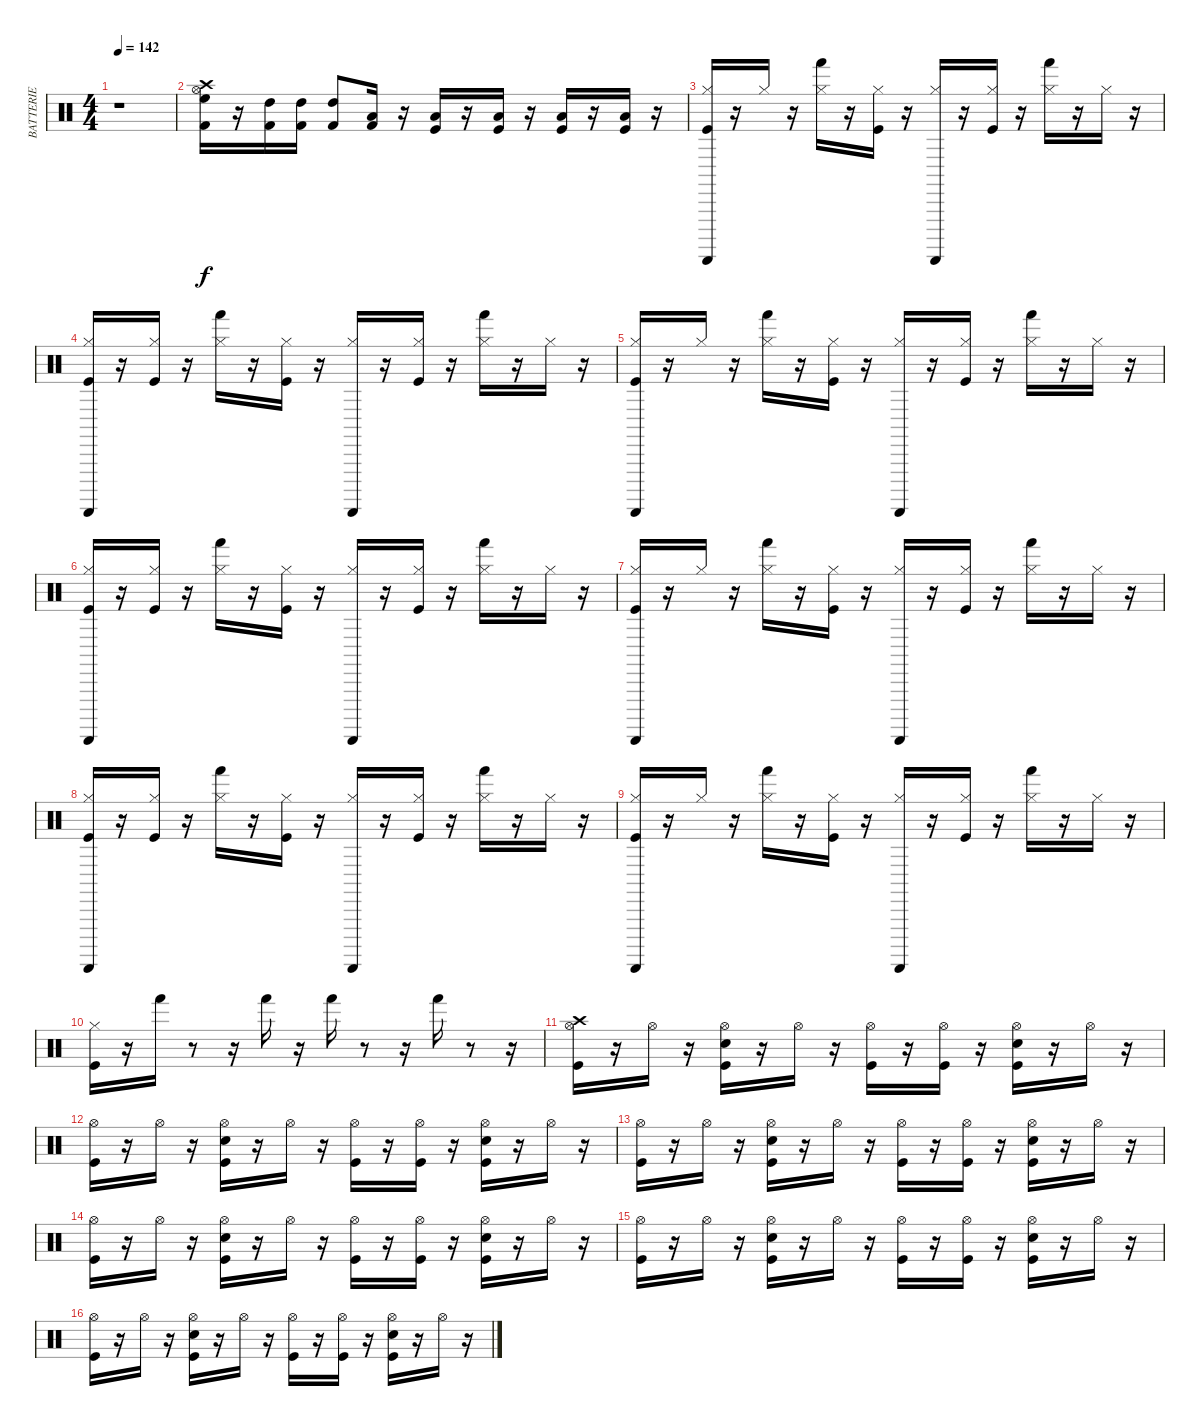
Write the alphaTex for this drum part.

\track ("BATTERIE" "BATTERIE") {instrument percussion}
\staff {score}
\articulation defaults
\ts (4 4)
\tempo 142
\clef neutral
\ks c
r.1{dy f} |
("Kick (hit) 2" "High Floor Tom (hit)" "Hi-Hat (open)" "Crash high (hit)").16 r.16 ("Kick (hit) 2" "High Tom (hit)").16 ("Kick (hit) 2" "High Tom (hit)").16 ("Kick (hit) 2" "High Tom (hit)").8 ("Kick (hit) 2" "Low Tom (hit)").16 r.16 ("Kick (hit)" "Low Tom (hit)").16 r.16 ("Kick (hit)" "Low Floor Tom (hit)").16 r.16 ("Kick (hit)" "Low Floor Tom (hit)").16 r.16 ("Kick (hit)" "Low Floor Tom (hit)").16 r.16 |
("Kick (hit)" "Hi-Hat (closed)" "Guiro (scrap-return)").16 r.16 "Hi-Hat (closed)".16 r.16 ("Hi-Hat (closed)" "Hand (hit)").16 r.16 ("Kick (hit)" "Hi-Hat (closed)").16 r.16 ("Hi-Hat (closed)" "Guiro (scrap-return)").16 r.16 ("Kick (hit)" "Hi-Hat (closed)").16 r.16 ("Hi-Hat (closed)" "Hand (hit)").16 r.16 "Hi-Hat (closed)".16 r.16 |
("Kick (hit)" "Hi-Hat (closed)" "Guiro (scrap-return)").16 r.16 ("Kick (hit)" "Hi-Hat (closed)").16 r.16 ("Hi-Hat (closed)" "Hand (hit)").16 r.16 ("Kick (hit)" "Hi-Hat (closed)").16 r.16 ("Hi-Hat (closed)" "Guiro (scrap-return)").16 r.16 ("Kick (hit)" "Hi-Hat (closed)").16 r.16 ("Hi-Hat (closed)" "Hand (hit)").16 r.16 "Hi-Hat (closed)".16 r.16 |
("Guiro (scrap-return)" "Hi-Hat (closed)" "Kick (hit)").16 r.16 "Hi-Hat (closed)".16 r.16 ("Hi-Hat (closed)" "Hand (hit)").16 r.16 ("Kick (hit)" "Hi-Hat (closed)").16 r.16 ("Hi-Hat (closed)" "Guiro (scrap-return)").16 r.16 ("Kick (hit)" "Hi-Hat (closed)").16 r.16 ("Hi-Hat (closed)" "Hand (hit)").16 r.16 "Hi-Hat (closed)".16 r.16 |
("Kick (hit)" "Hi-Hat (closed)" "Guiro (scrap-return)").16 r.16 ("Kick (hit)" "Hi-Hat (closed)").16 r.16 ("Hi-Hat (closed)" "Hand (hit)").16 r.16 ("Kick (hit)" "Hi-Hat (closed)").16 r.16 ("Hi-Hat (closed)" "Guiro (scrap-return)").16 r.16 ("Kick (hit)" "Hi-Hat (closed)").16 r.16 ("Hi-Hat (closed)" "Hand (hit)").16 r.16 "Hi-Hat (closed)".16 r.16 |
("Guiro (scrap-return)" "Hi-Hat (closed)" "Kick (hit)").16 r.16 "Hi-Hat (closed)".16 r.16 ("Hi-Hat (closed)" "Hand (hit)").16 r.16 ("Kick (hit)" "Hi-Hat (closed)").16 r.16 ("Hi-Hat (closed)" "Guiro (scrap-return)").16 r.16 ("Kick (hit)" "Hi-Hat (closed)").16 r.16 ("Hi-Hat (closed)" "Hand (hit)").16 r.16 "Hi-Hat (closed)".16 r.16 |
("Kick (hit)" "Hi-Hat (closed)" "Guiro (scrap-return)").16 r.16 ("Kick (hit)" "Hi-Hat (closed)").16 r.16 ("Hi-Hat (closed)" "Hand (hit)").16 r.16 ("Kick (hit)" "Hi-Hat (closed)").16 r.16 ("Hi-Hat (closed)" "Guiro (scrap-return)").16 r.16 ("Kick (hit)" "Hi-Hat (closed)").16 r.16 ("Hi-Hat (closed)" "Hand (hit)").16 r.16 "Hi-Hat (closed)".16 r.16 |
("Guiro (scrap-return)" "Hi-Hat (closed)" "Kick (hit)").16 r.16 "Hi-Hat (closed)".16 r.16 ("Hi-Hat (closed)" "Hand (hit)").16 r.16 ("Kick (hit)" "Hi-Hat (closed)").16 r.16 ("Hi-Hat (closed)" "Guiro (scrap-return)").16 r.16 ("Kick (hit)" "Hi-Hat (closed)").16 r.16 ("Hi-Hat (closed)" "Hand (hit)").16 r.16 "Hi-Hat (closed)".16 r.16 |
("Kick (hit)" "Hi-Hat (closed)").16 r.16 "Hand (hit)".16 r.8 r.16 "Hand (hit)".16 r.16 "Hand (hit)".16 r.8 r.16 "Hand (hit)".16 r.8 r.16 |
("Crash high (hit)" "Hi-Hat (open)" "Kick (hit)").16 r.16 "Hi-Hat (open)".16 r.16 ("Snare (hit) 2" "Kick (hit)" "Hi-Hat (open)").16 r.16 "Hi-Hat (open)".16 r.16 ("Kick (hit)" "Hi-Hat (open)").16 r.16 ("Kick (hit)" "Hi-Hat (open)").16 r.16 ("Kick (hit)" "Snare (hit) 2" "Hi-Hat (open)").16 r.16 "Hi-Hat (open)".16 r.16 |
("Kick (hit)" "Hi-Hat (open)").16 r.16 "Hi-Hat (open)".16 r.16 ("Snare (hit) 2" "Kick (hit)" "Hi-Hat (open)").16 r.16 "Hi-Hat (open)".16 r.16 ("Kick (hit)" "Hi-Hat (open)").16 r.16 ("Kick (hit)" "Hi-Hat (open)").16 r.16 ("Kick (hit)" "Snare (hit) 2" "Hi-Hat (open)").16 r.16 "Hi-Hat (open)".16 r.16 |
("Kick (hit)" "Hi-Hat (open)").16 r.16 "Hi-Hat (open)".16 r.16 ("Snare (hit) 2" "Kick (hit)" "Hi-Hat (open)").16 r.16 "Hi-Hat (open)".16 r.16 ("Kick (hit)" "Hi-Hat (open)").16 r.16 ("Kick (hit)" "Hi-Hat (open)").16 r.16 ("Kick (hit)" "Snare (hit) 2" "Hi-Hat (open)").16 r.16 "Hi-Hat (open)".16 r.16 |
("Kick (hit)" "Hi-Hat (open)").16 r.16 "Hi-Hat (open)".16 r.16 ("Snare (hit) 2" "Kick (hit)" "Hi-Hat (open)").16 r.16 "Hi-Hat (open)".16 r.16 ("Kick (hit)" "Hi-Hat (open)").16 r.16 ("Kick (hit)" "Hi-Hat (open)").16 r.16 ("Kick (hit)" "Snare (hit) 2" "Hi-Hat (open)").16 r.16 "Hi-Hat (open)".16 r.16 |
("Kick (hit)" "Hi-Hat (open)").16 r.16 "Hi-Hat (open)".16 r.16 ("Snare (hit) 2" "Kick (hit)" "Hi-Hat (open)").16 r.16 "Hi-Hat (open)".16 r.16 ("Kick (hit)" "Hi-Hat (open)").16 r.16 ("Kick (hit)" "Hi-Hat (open)").16 r.16 ("Kick (hit)" "Snare (hit) 2" "Hi-Hat (open)").16 r.16 "Hi-Hat (open)".16 r.16 |
("Kick (hit)" "Hi-Hat (open)").16 r.16 "Hi-Hat (open)".16 r.16 ("Snare (hit) 2" "Kick (hit)" "Hi-Hat (open)").16 r.16 "Hi-Hat (open)".16 r.16 ("Kick (hit)" "Hi-Hat (open)").16 r.16 ("Kick (hit)" "Hi-Hat (open)").16 r.16 ("Kick (hit)" "Snare (hit) 2" "Hi-Hat (open)").16 r.16 "Hi-Hat (open)".16 r.16
